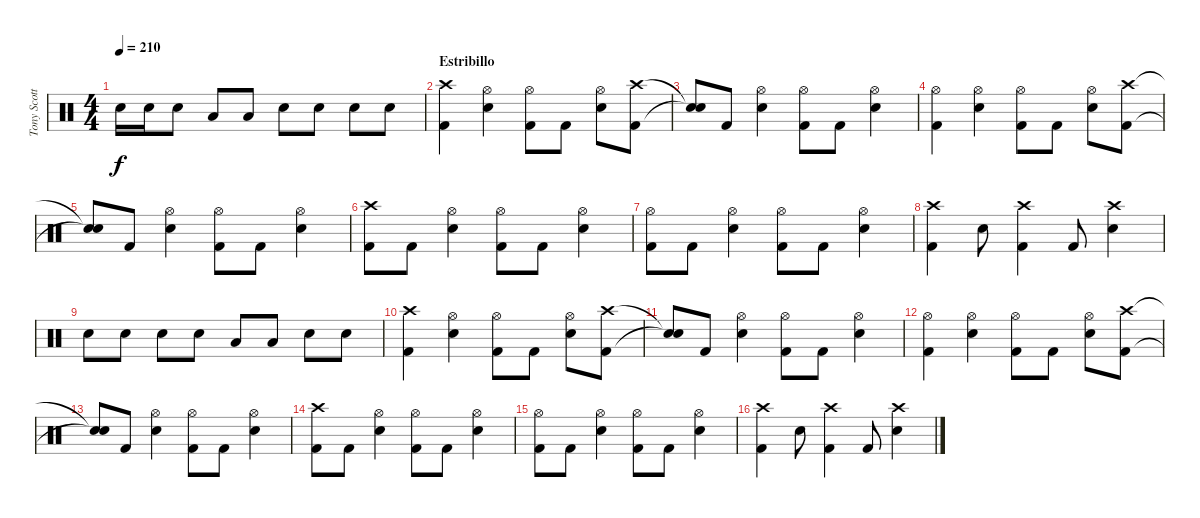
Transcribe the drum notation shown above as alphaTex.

\track ("Tony Scotto" "Tony Scott") {instrument percussion}
\staff {score}
\articulation defaults
\ts (4 4)
\tempo 210
\clef neutral
\ks c "Snare (hit) 2".16{dy f} "Snare (hit) 2".16 "Snare (hit) 2".8 "Low Tom (hit)".8 "Low Floor Tom (hit)".8 "Snare (hit) 2".8 "Snare (hit) 2".8 "Snare (hit) 2".8 "Snare (hit) 2".8
|
\section ("" "Estribillo")
("Crash high (hit)" "Kick (hit) 2").4 ("Hi-Hat (open)" "Snare (hit) 2").4 ("Hi-Hat (open)" "Kick (hit) 2").8 "Kick (hit) 2".8 ("Hi-Hat (open)" "Snare (hit) 2").8 ("Crash high (hit)" "Kick (hit) 2").8 |
("Snare (hit)"{t} "Snare (hit)"{t}).8 "Kick (hit) 2".8 ("Hi-Hat (open)" "Snare (hit) 2").4 ("Hi-Hat (open)" "Kick (hit) 2").8 "Kick (hit) 2".8 ("Hi-Hat (open)" "Snare (hit) 2").4 |
("Hi-Hat (open)" "Kick (hit) 2").4 ("Hi-Hat (open)" "Snare (hit) 2").4 ("Hi-Hat (open)" "Kick (hit) 2").8 "Kick (hit) 2".8 ("Hi-Hat (open)" "Snare (hit) 2").8 ("Crash high (hit)" "Kick (hit) 2").8 |
("Snare (hit)"{t} "Snare (hit)"{t}).8 "Kick (hit) 2".8 ("Hi-Hat (open)" "Snare (hit) 2").4 ("Hi-Hat (open)" "Kick (hit) 2").8 "Kick (hit) 2".8 ("Hi-Hat (open)" "Snare (hit) 2").4 |
("Crash high (hit)" "Kick (hit) 2").8 "Kick (hit) 2".8 ("Hi-Hat (open)" "Snare (hit) 2").4 ("Hi-Hat (open)" "Kick (hit) 2").8 "Kick (hit) 2".8 ("Hi-Hat (open)" "Snare (hit) 2").4 |
("Hi-Hat (open)" "Kick (hit) 2").8 "Kick (hit) 2".8 ("Hi-Hat (open)" "Snare (hit) 2").4 ("Hi-Hat (open)" "Kick (hit) 2").8 "Kick (hit) 2".8 ("Hi-Hat (open)" "Snare (hit) 2").4 |
("Crash high (hit)" "Kick (hit) 2").4 "Snare (hit) 2".8 ("Crash high (hit)" "Kick (hit) 2").4 "Kick (hit) 2".8 ("Crash high (hit)" "Snare (hit) 2").4 |
"Snare (hit) 2".8 "Snare (hit) 2".8 "Snare (hit) 2".8 "Snare (hit) 2".8 "Low Tom (hit)".8 "Low Tom (hit)".8 "Snare (hit) 2".8 "Snare (hit) 2".8 |
("Crash high (hit)" "Kick (hit) 2").4 ("Hi-Hat (open)" "Snare (hit) 2").4 ("Hi-Hat (open)" "Kick (hit) 2").8 "Kick (hit) 2".8 ("Hi-Hat (open)" "Snare (hit) 2").8 ("Crash high (hit)" "Kick (hit) 2").8 |
("Snare (hit)"{t} "Snare (hit)"{t}).8 "Kick (hit) 2".8 ("Hi-Hat (open)" "Snare (hit) 2").4 ("Hi-Hat (open)" "Kick (hit) 2").8 "Kick (hit) 2".8 ("Hi-Hat (open)" "Snare (hit) 2").4 |
("Hi-Hat (open)" "Kick (hit) 2").4 ("Hi-Hat (open)" "Snare (hit) 2").4 ("Hi-Hat (open)" "Kick (hit) 2").8 "Kick (hit) 2".8 ("Hi-Hat (open)" "Snare (hit) 2").8 ("Crash high (hit)" "Kick (hit) 2").8 |
("Snare (hit)"{t} "Snare (hit)"{t}).8 "Kick (hit) 2".8 ("Hi-Hat (open)" "Snare (hit) 2").4 ("Hi-Hat (open)" "Kick (hit) 2").8 "Kick (hit) 2".8 ("Hi-Hat (open)" "Snare (hit) 2").4 |
("Crash high (hit)" "Kick (hit) 2").8 "Kick (hit) 2".8 ("Hi-Hat (open)" "Snare (hit) 2").4 ("Hi-Hat (open)" "Kick (hit) 2").8 "Kick (hit) 2".8 ("Hi-Hat (open)" "Snare (hit) 2").4 |
("Hi-Hat (open)" "Kick (hit) 2").8 "Kick (hit) 2".8 ("Hi-Hat (open)" "Snare (hit) 2").4 ("Hi-Hat (open)" "Kick (hit) 2").8 "Kick (hit) 2".8 ("Hi-Hat (open)" "Snare (hit) 2").4 |
("Crash high (hit)" "Kick (hit) 2").4 "Snare (hit) 2".8 ("Crash high (hit)" "Kick (hit) 2").4 "Kick (hit) 2".8 ("Crash high (hit)" "Snare (hit) 2").4
